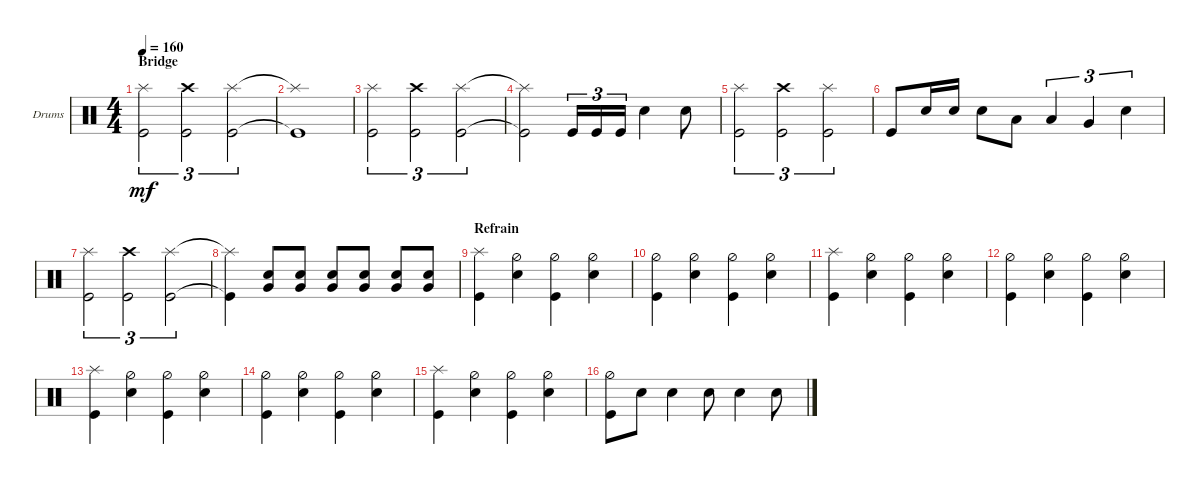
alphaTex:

\defaultSystemsLayout 4
\bracketExtendMode groupsimilarinstruments
\firstSystemTrackNameOrientation horizontal
\otherSystemsTrackNameOrientation horizontal
\track ("Drumkit" "Drums") {instrument percussion}
\staff {score}
\articulation defaults
\ts (4 4)
\section ("" "Bridge")
\tempo 160
\clef neutral
\ks c
("Kick (hit)" "Splash (hit)").2{tu (3 2) dy mf} ("Kick (hit)" "Crash high (hit)").2{tu (3 2)} ("Kick (hit)" "Splash (hit)").2{tu (3 2)} |
("Kick (hit)"{t} "Splash (hit)"{t}).1 |
("Kick (hit)" "Splash (hit)").2{tu (3 2)} ("Kick (hit)" "Crash high (hit)").2{tu (3 2)} ("Kick (hit)" "Splash (hit)").2{tu (3 2)} |
("Kick (hit)"{t} "Splash (hit)"{t}).2 "Kick (hit)".16{tu (3 2)} "Kick (hit)".16{tu (3 2)} "Kick (hit)".16{tu (3 2)} "Snare (hit) 2".4 "Snare (hit) 2".8 |
("Kick (hit)" "Splash (hit)").2{tu (3 2)} ("Kick (hit)" "Crash high (hit)").2{tu (3 2)} ("Kick (hit)" "Splash (hit)").2{tu (3 2)} |
"Kick (hit)".8 "Snare (hit) 2".16 "Snare (hit) 2".16 "Snare (hit) 2".8 "Low Tom (hit)".8 "Low Tom (hit)".4{tu (3 2)} "Very Low Tom (hit)".4{tu (3 2)} "Snare (hit) 2".4{tu (3 2)} |
("Kick (hit)" "Splash (hit)").2{tu (3 2)} ("Kick (hit)" "Crash high (hit)").2{tu (3 2)} ("Kick (hit)" "Splash (hit)").2{tu (3 2)} |
("Kick (hit)"{t} "Splash (hit)"{t}).4 ("Snare (hit) 2" "Very Low Tom (hit)").8 ("Snare (hit) 2" "Very Low Tom (hit)").8 ("Snare (hit) 2" "Very Low Tom (hit)").8 ("Snare (hit) 2" "Very Low Tom (hit)").8 ("Snare (hit) 2" "Very Low Tom (hit)").8 ("Snare (hit) 2" "Very Low Tom (hit)").8 |
\section ("" "Refrain")
("Kick (hit)" "Splash (hit)").4 ("Hi-Hat (half)" "Snare (hit) 2").4 ("Hi-Hat (half)" "Kick (hit)").4 ("Hi-Hat (half)" "Snare (hit) 2").4 |
("Hi-Hat (half)" "Kick (hit)").4 ("Hi-Hat (half)" "Snare (hit) 2").4 ("Hi-Hat (half)" "Kick (hit)").4 ("Hi-Hat (half)" "Snare (hit) 2").4 |
("Kick (hit)" "Splash (hit)").4 ("Hi-Hat (half)" "Snare (hit) 2").4 ("Hi-Hat (half)" "Kick (hit)").4 ("Hi-Hat (half)" "Snare (hit) 2").4 |
("Hi-Hat (half)" "Kick (hit)").4 ("Hi-Hat (half)" "Snare (hit) 2").4 ("Hi-Hat (half)" "Kick (hit)").4 ("Hi-Hat (half)" "Snare (hit) 2").4 |
("Kick (hit)" "Splash (hit)").4 ("Hi-Hat (half)" "Snare (hit) 2").4 ("Hi-Hat (half)" "Kick (hit)").4 ("Hi-Hat (half)" "Snare (hit) 2").4 |
("Hi-Hat (half)" "Kick (hit)").4 ("Hi-Hat (half)" "Snare (hit) 2").4 ("Hi-Hat (half)" "Kick (hit)").4 ("Hi-Hat (half)" "Snare (hit) 2").4 |
("Kick (hit)" "Splash (hit)").4 ("Hi-Hat (half)" "Snare (hit) 2").4 ("Hi-Hat (half)" "Kick (hit)").4 ("Hi-Hat (half)" "Snare (hit) 2").4 |
("Hi-Hat (half)" "Kick (hit)").8 "Snare (hit) 2".8 "Snare (hit) 2".4 "Snare (hit) 2".8 "Snare (hit) 2".4 "Snare (hit) 2".8
